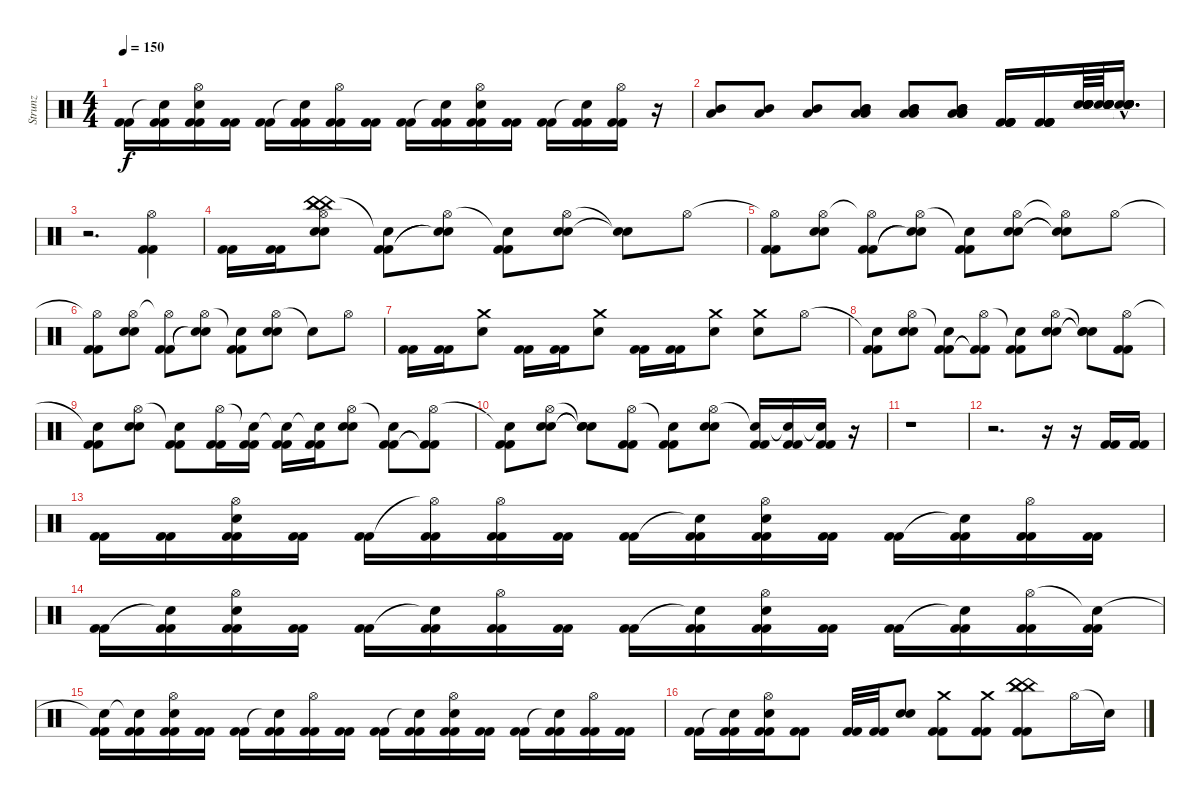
\track ("Strunz" "Strunz") {instrument percussion}
\staff {score}
\articulation defaults
\ts (4 4)
\tempo 150
\clef neutral
\ks c
("Kick (hit) 2" "Kick (hit) 2").16{dy f} ("Snare (hit)"{t} "Kick (hit) 2" "Kick (hit) 2").16 ("Hi-Hat (open)" "Snare (hit) 2" "Kick (hit) 2" "Kick (hit) 2").16 ("Kick (hit) 2" "Kick (hit) 2").16 ("Kick (hit) 2" "Kick (hit) 2").16 ("Snare (hit)"{t} "Kick (hit) 2" "Kick (hit) 2").16 ("Hi-Hat (open)" "Kick (hit) 2" "Kick (hit) 2").16 ("Kick (hit) 2" "Kick (hit) 2").16 ("Kick (hit) 2" "Kick (hit) 2").16 ("Snare (hit)"{t} "Kick (hit) 2" "Kick (hit) 2").16 ("Hi-Hat (open)" "Snare (hit) 2" "Kick (hit) 2" "Kick (hit) 2").16 ("Kick (hit) 2" "Kick (hit) 2").16 ("Kick (hit) 2" "Kick (hit) 2").16 ("Snare (hit)"{t} "Kick (hit) 2" "Kick (hit) 2").16 ("Hi-Hat (open)" "Kick (hit) 2" "Kick (hit) 2").16 r.16 |
("Mid Tom (hit)" "Low Tom (hit)").8 ("Mid Tom (hit)" "Low Tom (hit)").8 ("Mid Tom (hit)" "Low Tom (hit)").8 ("Low Tom (hit)" "Low Tom (hit)" "Mid Tom (hit)" "Mid Tom (hit)").8 ("Low Tom (hit)" "Low Tom (hit)" "Mid Tom (hit)" "Mid Tom (hit)").8 ("Low Tom (hit)" "Low Tom (hit)" "Low Tom (hit)" "Mid Tom (hit)" "Mid Tom (hit)" "Mid Tom (hit)").8 ("Kick (hit) 2" "Kick (hit) 2" "Kick (hit) 2" "Kick (hit) 2").16 ("Kick (hit) 2" "Kick (hit) 2" "Kick (hit) 2" "Kick (hit) 2").16 ("Snare (hit) 2" "Snare (hit) 2" "Snare (hit) 2" "Snare (hit) 2" "Snare (hit) 2" "Snare (hit) 2").64 ("Snare (hit) 2" "Snare (hit) 2" "Snare (hit) 2" "Snare (hit) 2" "Snare (hit) 2" "Snare (hit) 2").64 ("Snare (hit)"{hac t} "Snare (hit)"{hac t} "Snare (hit)"{hac t} "Snare (hit)"{hac t} "Snare (hit)"{hac t} "Snare (hit)"{hac t}).16{d} |
r.2{d} ("Hi-Hat (open)" "Kick (hit) 2" "Kick (hit) 2").4 |
("Kick (hit) 2" "Kick (hit) 2").16 ("Kick (hit) 2" "Kick (hit) 2").16 ("China (hit)" "Hi-Hat (open)" "China (hit)" "Snare (hit) 2" "Snare (hit) 2" "China (hit)").8 ("Snare (hit)"{t} "Kick (hit) 2" "Kick (hit) 2").8 ("Hi-Hat (open)" "Snare (hit)"{t} "Snare (hit)"{t}).8 ("Snare (hit)"{t} "Kick (hit) 2" "Kick (hit) 2").8 ("Hi-Hat (open)" "Snare (hit) 2" "Snare (hit) 2").8 ("Snare (hit)"{t} "Snare (hit)"{t}).8 "Hi-Hat (open)".8 |
("Hi-Hat (open)"{t} "Kick (hit) 2" "Kick (hit) 2").8 ("Hi-Hat (open)" "Snare (hit) 2" "Snare (hit) 2").8 ("Hi-Hat (open)"{t} "Kick (hit) 2" "Kick (hit) 2").8 ("Hi-Hat (open)" "Snare (hit)"{t} "Snare (hit)"{t}).8 ("Snare (hit)"{t} "Kick (hit) 2" "Kick (hit) 2").8 ("Hi-Hat (open)" "Snare (hit) 2" "Snare (hit) 2").8 ("Hi-Hat (open)"{t} "Snare (hit)"{t} "Snare (hit)"{t}).8 "Hi-Hat (open)".8 |
("Hi-Hat (open)"{t} "Kick (hit) 2" "Kick (hit) 2").8 ("Hi-Hat (open)" "Snare (hit) 2" "Snare (hit) 2").8 ("Hi-Hat (open)"{t} "Kick (hit) 2" "Kick (hit) 2").8 ("Hi-Hat (open)" "Snare (hit)"{t} "Snare (hit)"{t}).8 ("Snare (hit)"{t} "Kick (hit) 2" "Kick (hit) 2").8 ("Hi-Hat (open)" "Snare (hit) 2" "Snare (hit) 2").8 "Snare (hit)"{t}.8 "Hi-Hat (open)".8 |
("Kick (hit) 2" "Kick (hit) 2").16 ("Kick (hit) 2" "Kick (hit) 2").16 ("Crash medium (hit)" "Snare (hit) 2").8 ("Kick (hit) 2" "Kick (hit) 2").16 ("Kick (hit) 2" "Kick (hit) 2").16 ("Crash medium (hit)" "Snare (hit) 2").8 ("Kick (hit) 2" "Kick (hit) 2").16 ("Kick (hit) 2" "Kick (hit) 2").16 ("Crash medium (hit)" "Snare (hit) 2").8 ("Crash medium (hit)" "Snare (hit) 2").8 "Hi-Hat (open)".8 |
("Snare (hit)"{t} "Kick (hit) 2" "Kick (hit) 2").8 ("Hi-Hat (open)" "Snare (hit) 2" "Snare (hit) 2").8 ("Snare (hit)"{t} "Kick (hit) 2" "Kick (hit) 2").8 ("Hi-Hat (open)" "Kick (hit) 2"{t} "Kick (hit) 2"{t}).8 ("Snare (hit)"{t} "Kick (hit) 2" "Kick (hit) 2").8 ("Hi-Hat (open)" "Snare (hit) 2" "Snare (hit) 2").8 ("Snare (hit)"{t} "Snare (hit) 2"{t} "Snare (hit) 2"{t}).8 ("Hi-Hat (open)" "Kick (hit) 2" "Kick (hit) 2").8 |
("Snare (hit)"{t} "Kick (hit) 2" "Kick (hit) 2").8 ("Hi-Hat (open)" "Snare (hit) 2" "Snare (hit) 2").8 ("Snare (hit)"{t} "Kick (hit) 2" "Kick (hit) 2").8 ("Hi-Hat (open)" "Kick (hit) 2" "Kick (hit) 2").16 ("Snare (hit)"{t} "Kick (hit) 2" "Kick (hit) 2").16 ("Snare (hit)"{t} "Kick (hit) 2" "Kick (hit) 2").16 ("Snare (hit)"{t} "Kick (hit) 2" "Kick (hit) 2").16 ("Hi-Hat (open)" "Snare (hit) 2" "Snare (hit) 2").8 ("Snare (hit)"{t} "Kick (hit) 2" "Kick (hit) 2").8 ("Hi-Hat (open)" "Kick (hit) 2"{t} "Kick (hit) 2"{t}).8 |
("Snare (hit)"{t} "Kick (hit) 2" "Kick (hit) 2").8 ("Hi-Hat (open)" "Snare (hit) 2" "Snare (hit) 2").8 ("Snare (hit)"{t} "Snare (hit) 2"{t} "Snare (hit) 2"{t}).8 ("Hi-Hat (open)" "Kick (hit) 2" "Kick (hit) 2").8 ("Snare (hit)"{t} "Kick (hit) 2" "Kick (hit) 2").8 ("Hi-Hat (open)" "Snare (hit) 2" "Snare (hit) 2").8 ("Snare (hit)"{t} "Kick (hit) 2" "Kick (hit) 2").16 ("Snare (hit)"{t} "Kick (hit) 2" "Kick (hit) 2").16 ("Snare (hit)"{t} "Kick (hit) 2" "Kick (hit) 2").16 r.16 |
r.1 |
r.2{d} r.16 r.16 ("Kick (hit) 2" "Kick (hit) 2").16 ("Kick (hit) 2" "Kick (hit) 2").16 |
("Kick (hit) 2" "Kick (hit) 2").16 ("Kick (hit) 2" "Kick (hit) 2").16 ("Hi-Hat (open)" "Snare (hit) 2" "Kick (hit) 2" "Kick (hit) 2").16 ("Kick (hit) 2" "Kick (hit) 2").16 ("Kick (hit) 2" "Kick (hit) 2").16 ("Hi-Hat (open)"{t} "Kick (hit) 2" "Kick (hit) 2").16 ("Hi-Hat (open)" "Kick (hit) 2" "Kick (hit) 2").16 ("Kick (hit) 2" "Kick (hit) 2").16 ("Kick (hit) 2" "Kick (hit) 2").16 ("Snare (hit)"{t} "Kick (hit) 2" "Kick (hit) 2").16 ("Hi-Hat (open)" "Snare (hit) 2" "Kick (hit) 2" "Kick (hit) 2").16 ("Kick (hit) 2" "Kick (hit) 2").16 ("Kick (hit) 2" "Kick (hit) 2").16 ("Snare (hit)"{t} "Kick (hit) 2" "Kick (hit) 2").16 ("Hi-Hat (open)" "Kick (hit) 2" "Kick (hit) 2").16 ("Kick (hit) 2" "Kick (hit) 2").16 |
("Kick (hit) 2" "Kick (hit) 2").16 ("Snare (hit)"{t} "Kick (hit) 2" "Kick (hit) 2").16 ("Hi-Hat (open)" "Snare (hit) 2" "Kick (hit) 2" "Kick (hit) 2").16 ("Kick (hit) 2" "Kick (hit) 2").16 ("Kick (hit) 2" "Kick (hit) 2").16 ("Snare (hit)"{t} "Kick (hit) 2" "Kick (hit) 2").16 ("Hi-Hat (open)" "Kick (hit) 2" "Kick (hit) 2").16 ("Kick (hit) 2" "Kick (hit) 2").16 ("Kick (hit) 2" "Kick (hit) 2").16 ("Snare (hit)"{t} "Kick (hit) 2" "Kick (hit) 2").16 ("Hi-Hat (open)" "Snare (hit) 2" "Kick (hit) 2" "Kick (hit) 2").16 ("Kick (hit) 2" "Kick (hit) 2").16 ("Kick (hit) 2" "Kick (hit) 2").16 ("Snare (hit)"{t} "Kick (hit) 2" "Kick (hit) 2").16 ("Hi-Hat (open)" "Kick (hit) 2" "Kick (hit) 2").16 ("Snare (hit)"{t} "Kick (hit) 2" "Kick (hit) 2").16 |
("Snare (hit)"{t} "Kick (hit) 2" "Kick (hit) 2").16 ("Snare (hit)"{t} "Kick (hit) 2" "Kick (hit) 2").16 ("Hi-Hat (open)" "Snare (hit) 2" "Kick (hit) 2" "Kick (hit) 2").16 ("Kick (hit) 2" "Kick (hit) 2").16 ("Kick (hit) 2" "Kick (hit) 2").16 ("Snare (hit)"{t} "Kick (hit) 2" "Kick (hit) 2").16 ("Hi-Hat (open)" "Kick (hit) 2" "Kick (hit) 2").16 ("Kick (hit) 2" "Kick (hit) 2").16 ("Kick (hit) 2" "Kick (hit) 2").16 ("Snare (hit)"{t} "Kick (hit) 2" "Kick (hit) 2").16 ("Hi-Hat (open)" "Snare (hit) 2" "Kick (hit) 2" "Kick (hit) 2").16 ("Kick (hit) 2" "Kick (hit) 2").16 ("Kick (hit) 2" "Kick (hit) 2").16 ("Snare (hit)"{t} "Kick (hit) 2" "Kick (hit) 2").16 ("Hi-Hat (open)" "Kick (hit) 2" "Kick (hit) 2").16 ("Kick (hit) 2" "Kick (hit) 2").16 |
("Kick (hit) 2" "Kick (hit) 2").16 ("Snare (hit)"{t} "Kick (hit) 2" "Kick (hit) 2").16 ("Hi-Hat (open)" "Snare (hit) 2" "Kick (hit) 2" "Kick (hit) 2").16 ("Kick (hit) 2" "Kick (hit) 2").8 ("Kick (hit) 2" "Kick (hit) 2").32 ("Kick (hit) 2" "Kick (hit) 2").32 ("Snare (hit) 2" "Snare (hit) 2").8 ("Crash medium (hit)" "Kick (hit) 2" "Kick (hit) 2").8 ("Crash medium (hit)" "Kick (hit) 2" "Kick (hit) 2").8 ("China (hit)" "China (hit)" "China (hit)" "Kick (hit) 2" "Kick (hit) 2").8 "Hi-Hat (open)".16 "Snare (hit)"{t}.16
